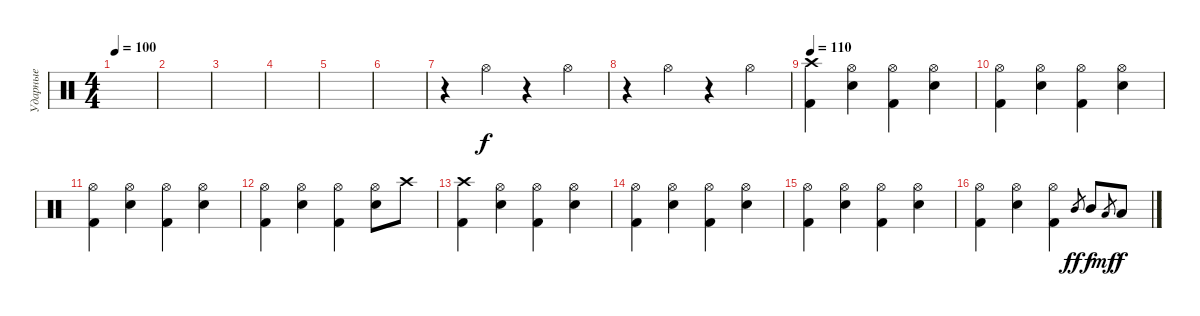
\track ("Ударные" "Ударные") {instrument percussion}
\staff {score}
\articulation defaults
\ts (4 4)
\tempo 100
\clef neutral
\ks c
|
|
|
|
|
|
r.4 "Hi-Hat (open)".4 r.4 "Hi-Hat (open)".4 |
r.4 "Hi-Hat (open)".4 r.4 "Hi-Hat (open)".4 |
\tempo 110
("Crash high (hit)" "Kick (hit) 2").4 ("Hi-Hat (open)" "Snare (hit) 2").4 ("Hi-Hat (open)" "Kick (hit) 2").4 ("Hi-Hat (open)" "Snare (hit) 2").4 |
("Hi-Hat (open)" "Kick (hit) 2").4 ("Hi-Hat (open)" "Snare (hit) 2").4 ("Hi-Hat (open)" "Kick (hit) 2").4 ("Hi-Hat (open)" "Snare (hit) 2").4 |
("Hi-Hat (open)" "Kick (hit) 2").4 ("Hi-Hat (open)" "Snare (hit) 2").4 ("Hi-Hat (open)" "Kick (hit) 2").4 ("Hi-Hat (open)" "Snare (hit) 2").4 |
("Hi-Hat (open)" "Kick (hit) 2").4 ("Hi-Hat (open)" "Snare (hit) 2").4 ("Hi-Hat (open)" "Kick (hit) 2").4 ("Hi-Hat (open)" "Snare (hit) 2").8 "Crash high (hit)".8 |
("Crash high (hit)" "Kick (hit) 2").4 ("Hi-Hat (open)" "Snare (hit) 2").4 ("Hi-Hat (open)" "Kick (hit) 2").4 ("Hi-Hat (open)" "Snare (hit) 2").4 |
("Hi-Hat (open)" "Kick (hit) 2").4 ("Hi-Hat (open)" "Snare (hit) 2").4 ("Hi-Hat (open)" "Kick (hit) 2").4 ("Hi-Hat (open)" "Snare (hit) 2").4 |
("Hi-Hat (open)" "Kick (hit) 2").4 ("Hi-Hat (open)" "Snare (hit) 2").4 ("Hi-Hat (open)" "Kick (hit) 2").4 ("Hi-Hat (open)" "Snare (hit) 2").4 |
("Hi-Hat (open)" "Kick (hit) 2").4 ("Hi-Hat (open)" "Snare (hit) 2").4 ("Hi-Hat (open)" "Kick (hit) 2").4 "Mid Tom (hit)".8{gr dy ff} "Mid Tom (hit)".8{dy f} "Low Tom (hit)".8{gr dy mf} "Low Tom (hit)".8{dy f}
